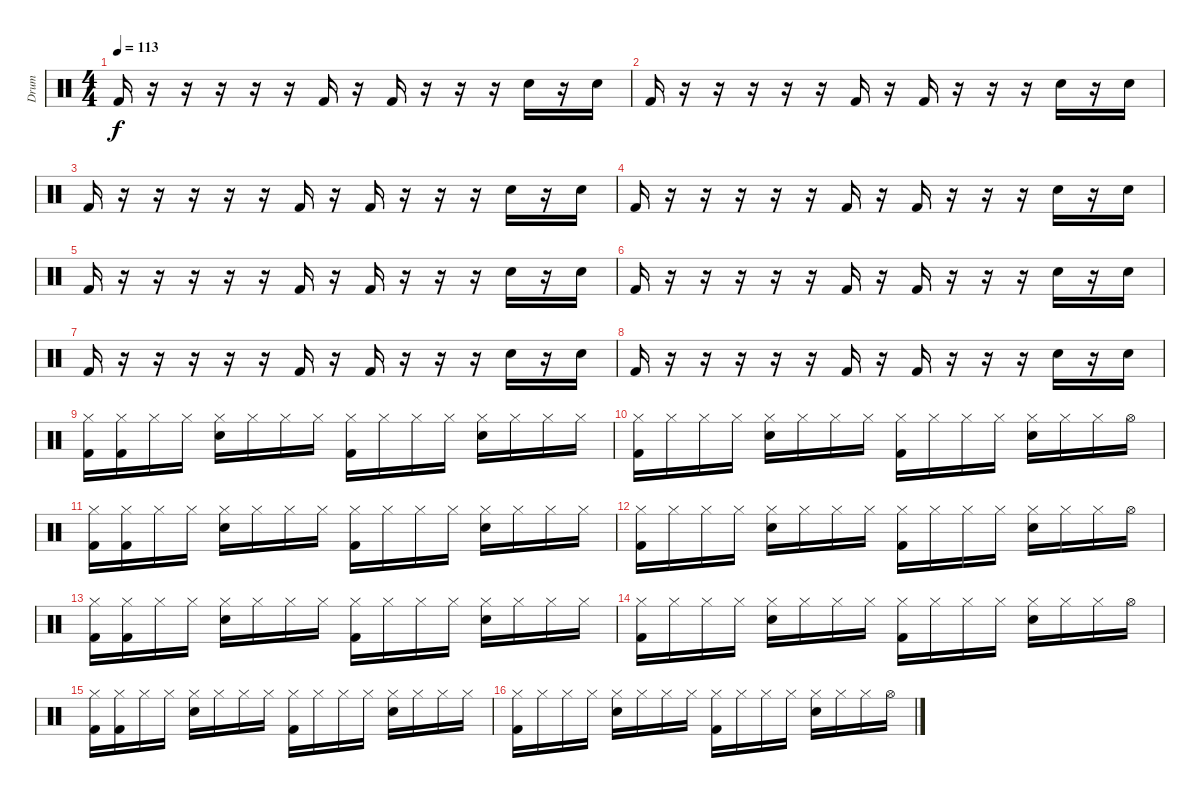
\track ("Drum" "Drum") {instrument percussion}
\staff {score}
\articulation defaults
\ts (4 4)
\tempo 113
\clef neutral
\ks c "Kick (hit) 2".16{dy f}
r.16 r.16 r.16 r.16 r.16 "Kick (hit) 2".16 r.16 "Kick (hit) 2".16 r.16 r.16 r.16 "Hand Clap (hit)".16 r.16 "Hand Clap (hit)".16 |
"Kick (hit) 2".16 r.16 r.16 r.16 r.16 r.16 "Kick (hit) 2".16 r.16 "Kick (hit) 2".16 r.16 r.16 r.16 "Hand Clap (hit)".16 r.16 "Hand Clap (hit)".16 |
"Kick (hit) 2".16 r.16 r.16 r.16 r.16 r.16 "Kick (hit) 2".16 r.16 "Kick (hit) 2".16 r.16 r.16 r.16 "Hand Clap (hit)".16 r.16 "Hand Clap (hit)".16 |
"Kick (hit) 2".16 r.16 r.16 r.16 r.16 r.16 "Kick (hit) 2".16 r.16 "Kick (hit) 2".16 r.16 r.16 r.16 "Hand Clap (hit)".16 r.16 "Hand Clap (hit)".16 |
"Kick (hit) 2".16 r.16 r.16 r.16 r.16 r.16 "Kick (hit) 2".16 r.16 "Kick (hit) 2".16 r.16 r.16 r.16 "Hand Clap (hit)".16 r.16 "Hand Clap (hit)".16 |
"Kick (hit) 2".16 r.16 r.16 r.16 r.16 r.16 "Kick (hit) 2".16 r.16 "Kick (hit) 2".16 r.16 r.16 r.16 "Hand Clap (hit)".16 r.16 "Hand Clap (hit)".16 |
"Kick (hit) 2".16 r.16 r.16 r.16 r.16 r.16 "Kick (hit) 2".16 r.16 "Kick (hit) 2".16 r.16 r.16 r.16 "Hand Clap (hit)".16 r.16 "Hand Clap (hit)".16 |
"Kick (hit) 2".16 r.16 r.16 r.16 r.16 r.16 "Kick (hit) 2".16 r.16 "Kick (hit) 2".16 r.16 r.16 r.16 "Hand Clap (hit)".16 r.16 "Hand Clap (hit)".16 |
("Hi-Hat (closed)" "Kick (hit) 2").16 ("Hi-Hat (closed)" "Kick (hit) 2").16 "Hi-Hat (closed)".16 "Hi-Hat (closed)".16 ("Hi-Hat (closed)" "Snare (hit) 2").16 "Hi-Hat (closed)".16 "Hi-Hat (closed)".16 "Hi-Hat (closed)".16 ("Hi-Hat (closed)" "Kick (hit) 2").16 "Hi-Hat (closed)".16 "Hi-Hat (closed)".16 "Hi-Hat (closed)".16 ("Hi-Hat (closed)" "Snare (hit) 2").16 "Hi-Hat (closed)".16 "Hi-Hat (closed)".16 "Hi-Hat (closed)".16 |
("Hi-Hat (closed)" "Kick (hit) 2").16 "Hi-Hat (closed)".16 "Hi-Hat (closed)".16 "Hi-Hat (closed)".16 ("Hi-Hat (closed)" "Snare (hit) 2").16 "Hi-Hat (closed)".16 "Hi-Hat (closed)".16 "Hi-Hat (closed)".16 ("Hi-Hat (closed)" "Kick (hit) 2").16 "Hi-Hat (closed)".16 "Hi-Hat (closed)".16 "Hi-Hat (closed)".16 ("Hi-Hat (closed)" "Snare (hit) 2").16 "Hi-Hat (closed)".16 "Hi-Hat (closed)".16 "Hi-Hat (open)".16 |
("Hi-Hat (closed)" "Kick (hit) 2").16 ("Hi-Hat (closed)" "Kick (hit) 2").16 "Hi-Hat (closed)".16 "Hi-Hat (closed)".16 ("Hi-Hat (closed)" "Snare (hit) 2").16 "Hi-Hat (closed)".16 "Hi-Hat (closed)".16 "Hi-Hat (closed)".16 ("Hi-Hat (closed)" "Kick (hit) 2").16 "Hi-Hat (closed)".16 "Hi-Hat (closed)".16 "Hi-Hat (closed)".16 ("Hi-Hat (closed)" "Snare (hit) 2").16 "Hi-Hat (closed)".16 "Hi-Hat (closed)".16 "Hi-Hat (closed)".16 |
("Hi-Hat (closed)" "Kick (hit) 2").16 "Hi-Hat (closed)".16 "Hi-Hat (closed)".16 "Hi-Hat (closed)".16 ("Hi-Hat (closed)" "Snare (hit) 2").16 "Hi-Hat (closed)".16 "Hi-Hat (closed)".16 "Hi-Hat (closed)".16 ("Hi-Hat (closed)" "Kick (hit) 2").16 "Hi-Hat (closed)".16 "Hi-Hat (closed)".16 "Hi-Hat (closed)".16 ("Hi-Hat (closed)" "Snare (hit) 2").16 "Hi-Hat (closed)".16 "Hi-Hat (closed)".16 "Hi-Hat (open)".16 |
("Hi-Hat (closed)" "Kick (hit) 2").16 ("Hi-Hat (closed)" "Kick (hit) 2").16 "Hi-Hat (closed)".16 "Hi-Hat (closed)".16 ("Hi-Hat (closed)" "Snare (hit) 2").16 "Hi-Hat (closed)".16 "Hi-Hat (closed)".16 "Hi-Hat (closed)".16 ("Hi-Hat (closed)" "Kick (hit) 2").16 "Hi-Hat (closed)".16 "Hi-Hat (closed)".16 "Hi-Hat (closed)".16 ("Hi-Hat (closed)" "Snare (hit) 2").16 "Hi-Hat (closed)".16 "Hi-Hat (closed)".16 "Hi-Hat (closed)".16 |
("Hi-Hat (closed)" "Kick (hit) 2").16 "Hi-Hat (closed)".16 "Hi-Hat (closed)".16 "Hi-Hat (closed)".16 ("Hi-Hat (closed)" "Snare (hit) 2").16 "Hi-Hat (closed)".16 "Hi-Hat (closed)".16 "Hi-Hat (closed)".16 ("Hi-Hat (closed)" "Kick (hit) 2").16 "Hi-Hat (closed)".16 "Hi-Hat (closed)".16 "Hi-Hat (closed)".16 ("Hi-Hat (closed)" "Snare (hit) 2").16 "Hi-Hat (closed)".16 "Hi-Hat (closed)".16 "Hi-Hat (open)".16 |
("Hi-Hat (closed)" "Kick (hit) 2").16 ("Hi-Hat (closed)" "Kick (hit) 2").16 "Hi-Hat (closed)".16 "Hi-Hat (closed)".16 ("Hi-Hat (closed)" "Snare (hit) 2").16 "Hi-Hat (closed)".16 "Hi-Hat (closed)".16 "Hi-Hat (closed)".16 ("Hi-Hat (closed)" "Kick (hit) 2").16 "Hi-Hat (closed)".16 "Hi-Hat (closed)".16 "Hi-Hat (closed)".16 ("Hi-Hat (closed)" "Snare (hit) 2").16 "Hi-Hat (closed)".16 "Hi-Hat (closed)".16 "Hi-Hat (closed)".16 |
("Hi-Hat (closed)" "Kick (hit) 2").16 "Hi-Hat (closed)".16 "Hi-Hat (closed)".16 "Hi-Hat (closed)".16 ("Hi-Hat (closed)" "Snare (hit) 2").16 "Hi-Hat (closed)".16 "Hi-Hat (closed)".16 "Hi-Hat (closed)".16 ("Hi-Hat (closed)" "Kick (hit) 2").16 "Hi-Hat (closed)".16 "Hi-Hat (closed)".16 "Hi-Hat (closed)".16 ("Hi-Hat (closed)" "Snare (hit) 2").16 "Hi-Hat (closed)".16 "Hi-Hat (closed)".16 "Hi-Hat (open)".16
